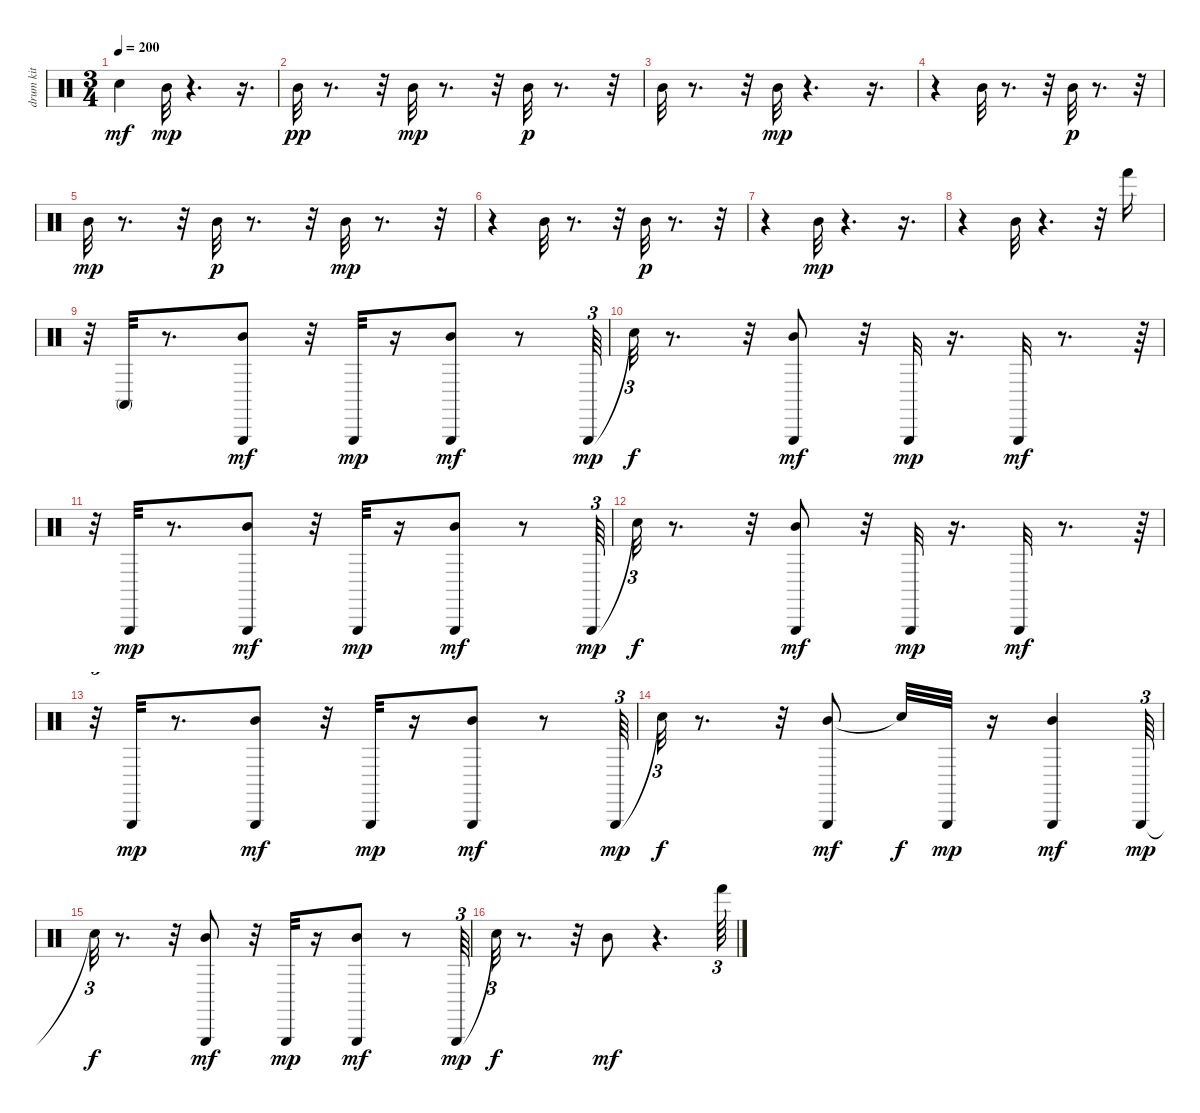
\track (" drum kit (hi-hat/cymbals)" " drum kit ") {instrument percussion}
\staff {score}
\articulation defaults
\ts (3 4)
\tempo 200
\clef neutral
\ks c "Snare (hit)".4{dy mf} "Mid Tom (hit)".32{dy mp}
r.4{d} r.16{d} |
"Mid Tom (hit)".32{dy pp} r.8{d} r.32 "Mid Tom (hit)".32{dy mp} r.8{d} r.32 "Mid Tom (hit)".32{dy p} r.8{d} r.32 |
"Mid Tom (hit)".32 r.8{d} r.32 "Mid Tom (hit)".32{dy mp} r.4{d} r.16{d} |
r.4 "Mid Tom (hit)".32 r.8{d} r.32 "Mid Tom (hit)".32{dy p} r.8{d} r.32 |
"Mid Tom (hit)".32{dy mp} r.8{d} r.32 "Mid Tom (hit)".32{dy p} r.8{d} r.32 "Mid Tom (hit)".32{dy mp} r.8{d} r.32 |
r.4 "Mid Tom (hit)".32 r.8{d} r.32 "Mid Tom (hit)".32{dy p} r.8{d} r.32 |
r.4 "Mid Tom (hit)".32{dy mp} r.4{d} r.16{d} |
r.4 "Mid Tom (hit)".32 r.4{d} r.32 "Hand (hit)".16 |
r.32{tu (3 2)} "Conga high (mute)".32 r.8{d} ("Mid Tom (hit)" "Triangle (hit)").8{dy mf} r.32 "Triangle (hit)".32{dy mp} r.16 ("Mid Tom (hit)" "Triangle (hit)").8{dy mf} r.8 "Triangle (hit)".64{tu (3 2) dy mp} |
"Snare (hit)"{t}.32{tu (3 2) dy f} r.8{d} r.32 ("Mid Tom (hit)" "Triangle (hit)").8{dy mf} r.32 "Triangle (hit)".32{dy mp} r.16{d} "Triangle (hit)".32{dy mf} r.8{d} r.64{tu (3 2)} |
r.32{tu (3 2)} "Triangle (hit)".32{dy mp} r.8{d} ("Mid Tom (hit)" "Triangle (hit)").8{dy mf} r.32 "Triangle (hit)".32{dy mp} r.16 ("Mid Tom (hit)" "Triangle (hit)").8{dy mf} r.8 "Triangle (hit)".64{tu (3 2) dy mp} |
"Snare (hit)"{t}.32{tu (3 2) dy f} r.8{d} r.32 ("Mid Tom (hit)" "Triangle (hit)").8{dy mf} r.32 "Triangle (hit)".32{dy mp} r.16{d} "Triangle (hit)".32{dy mf} r.8{d} r.64{tu (3 2)} |
r.32{tu (3 2)} "Triangle (hit)".32{dy mp} r.8{d} ("Mid Tom (hit)" "Triangle (hit)").8{dy mf} r.32 "Triangle (hit)".32{dy mp} r.16 ("Mid Tom (hit)" "Triangle (hit)").8{dy mf} r.8 "Triangle (hit)".64{tu (3 2) dy mp} |
"Snare (hit)"{t}.32{tu (3 2) dy f} r.8{d} r.32 ("Mid Tom (hit)" "Triangle (hit)").8{dy mf} "Snare (hit)"{t}.32{dy f} "Triangle (hit)".32{dy mp} r.16 ("Mid Tom (hit)" "Triangle (hit)").4{dy mf} "Triangle (hit)".64{tu (3 2) dy mp} |
"Snare (hit)"{t}.32{tu (3 2) dy f} r.8{d} r.32 ("Mid Tom (hit)" "Triangle (hit)").8{dy mf} r.32 "Triangle (hit)".32{dy mp} r.16 ("Mid Tom (hit)" "Triangle (hit)").8{dy mf} r.8 "Triangle (hit)".64{tu (3 2) dy mp} |
"Snare (hit)"{t}.32{tu (3 2) dy f} r.8{d} r.32 "Mid Tom (hit)".8{dy mf} r.4{d} "Hand (hit)".64{tu (3 2)}
